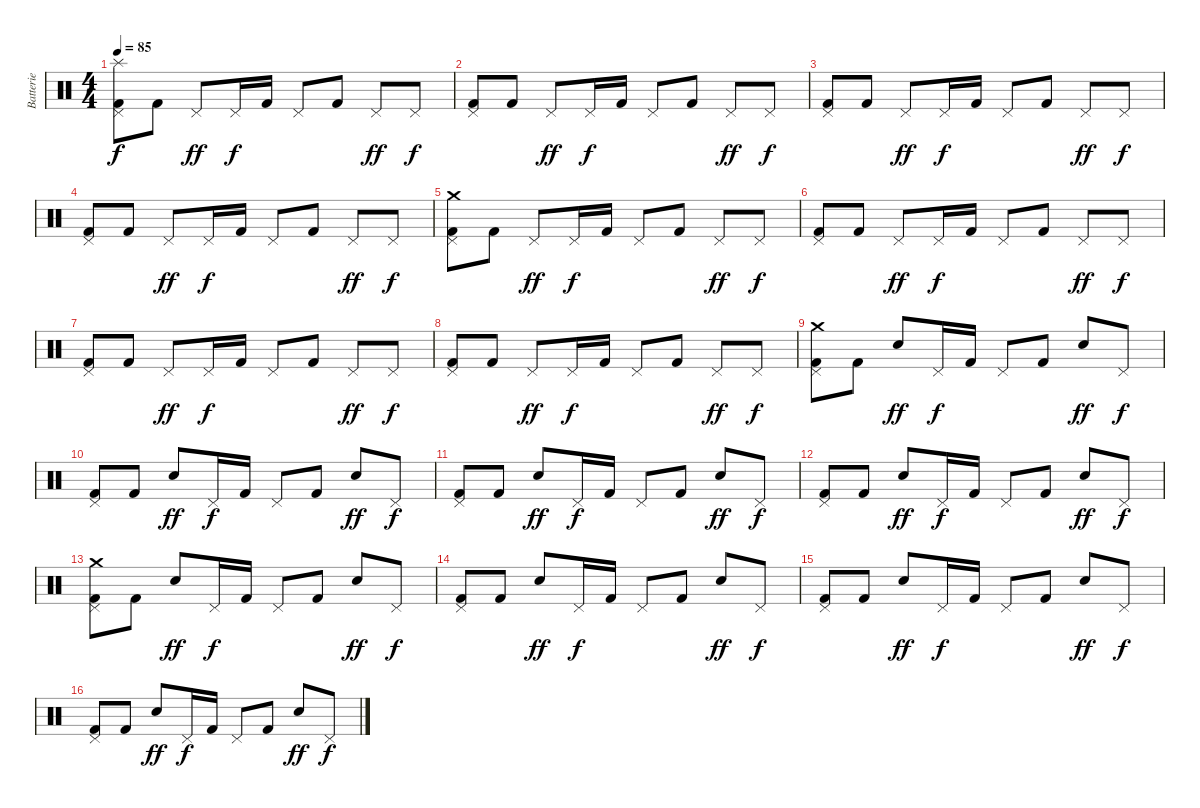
\track ("Batterie" "Batterie") {instrument percussion}
\staff {score}
\articulation defaults
\ts (4 4)
\tempo 85
\clef neutral
\ks c
("Splash (hit)" "Pedal Hi-Hat (hit)" "Kick (hit) 2").8{dy f} "Kick (hit) 2".8 "Pedal Hi-Hat (hit)".8{dy ff} "Pedal Hi-Hat (hit)".16{dy f} "Kick (hit) 2".16 "Pedal Hi-Hat (hit)".8 "Kick (hit) 2".8 "Pedal Hi-Hat (hit)".8{dy ff} "Pedal Hi-Hat (hit)".8{dy f} |
("Pedal Hi-Hat (hit)" "Kick (hit) 2").8 "Kick (hit) 2".8 "Pedal Hi-Hat (hit)".8{dy ff} "Pedal Hi-Hat (hit)".16{dy f} "Kick (hit) 2".16 "Pedal Hi-Hat (hit)".8 "Kick (hit) 2".8 "Pedal Hi-Hat (hit)".8{dy ff} "Pedal Hi-Hat (hit)".8{dy f} |
("Pedal Hi-Hat (hit)" "Kick (hit) 2").8 "Kick (hit) 2".8 "Pedal Hi-Hat (hit)".8{dy ff} "Pedal Hi-Hat (hit)".16{dy f} "Kick (hit) 2".16 "Pedal Hi-Hat (hit)".8 "Kick (hit) 2".8 "Pedal Hi-Hat (hit)".8{dy ff} "Pedal Hi-Hat (hit)".8{dy f} |
("Pedal Hi-Hat (hit)" "Kick (hit) 2").8 "Kick (hit) 2".8 "Pedal Hi-Hat (hit)".8{dy ff} "Pedal Hi-Hat (hit)".16{dy f} "Kick (hit) 2".16 "Pedal Hi-Hat (hit)".8 "Kick (hit) 2".8 "Pedal Hi-Hat (hit)".8{dy ff} "Pedal Hi-Hat (hit)".8{dy f} |
("Crash medium (hit)" "Pedal Hi-Hat (hit)" "Kick (hit) 2").8 "Kick (hit) 2".8 "Pedal Hi-Hat (hit)".8{dy ff} "Pedal Hi-Hat (hit)".16{dy f} "Kick (hit) 2".16 "Pedal Hi-Hat (hit)".8 "Kick (hit) 2".8 "Pedal Hi-Hat (hit)".8{dy ff} "Pedal Hi-Hat (hit)".8{dy f} |
("Pedal Hi-Hat (hit)" "Kick (hit) 2").8 "Kick (hit) 2".8 "Pedal Hi-Hat (hit)".8{dy ff} "Pedal Hi-Hat (hit)".16{dy f} "Kick (hit) 2".16 "Pedal Hi-Hat (hit)".8 "Kick (hit) 2".8 "Pedal Hi-Hat (hit)".8{dy ff} "Pedal Hi-Hat (hit)".8{dy f} |
("Pedal Hi-Hat (hit)" "Kick (hit) 2").8 "Kick (hit) 2".8 "Pedal Hi-Hat (hit)".8{dy ff} "Pedal Hi-Hat (hit)".16{dy f} "Kick (hit) 2".16 "Pedal Hi-Hat (hit)".8 "Kick (hit) 2".8 "Pedal Hi-Hat (hit)".8{dy ff} "Pedal Hi-Hat (hit)".8{dy f} |
("Pedal Hi-Hat (hit)" "Kick (hit) 2").8 "Kick (hit) 2".8 "Pedal Hi-Hat (hit)".8{dy ff} "Pedal Hi-Hat (hit)".16{dy f} "Kick (hit) 2".16 "Pedal Hi-Hat (hit)".8 "Kick (hit) 2".8 "Pedal Hi-Hat (hit)".8{dy ff} "Pedal Hi-Hat (hit)".8{dy f} |
("Crash medium (hit)" "Pedal Hi-Hat (hit)" "Kick (hit) 2").8 "Kick (hit) 2".8 "Electric Snare (hit)".8{dy ff} "Pedal Hi-Hat (hit)".16{dy f} "Kick (hit) 2".16 "Pedal Hi-Hat (hit)".8 "Kick (hit) 2".8 "Electric Snare (hit)".8{dy ff} "Pedal Hi-Hat (hit)".8{dy f} |
("Pedal Hi-Hat (hit)" "Kick (hit) 2").8 "Kick (hit) 2".8 "Electric Snare (hit)".8{dy ff} "Pedal Hi-Hat (hit)".16{dy f} "Kick (hit) 2".16 "Pedal Hi-Hat (hit)".8 "Kick (hit) 2".8 "Electric Snare (hit)".8{dy ff} "Pedal Hi-Hat (hit)".8{dy f} |
("Pedal Hi-Hat (hit)" "Kick (hit) 2").8 "Kick (hit) 2".8 "Electric Snare (hit)".8{dy ff} "Pedal Hi-Hat (hit)".16{dy f} "Kick (hit) 2".16 "Pedal Hi-Hat (hit)".8 "Kick (hit) 2".8 "Electric Snare (hit)".8{dy ff} "Pedal Hi-Hat (hit)".8{dy f} |
("Pedal Hi-Hat (hit)" "Kick (hit) 2").8 "Kick (hit) 2".8 "Electric Snare (hit)".8{dy ff} "Pedal Hi-Hat (hit)".16{dy f} "Kick (hit) 2".16 "Pedal Hi-Hat (hit)".8 "Kick (hit) 2".8 "Electric Snare (hit)".8{dy ff} "Pedal Hi-Hat (hit)".8{dy f} |
("Crash medium (hit)" "Pedal Hi-Hat (hit)" "Kick (hit) 2").8 "Kick (hit) 2".8 "Electric Snare (hit)".8{dy ff} "Pedal Hi-Hat (hit)".16{dy f} "Kick (hit) 2".16 "Pedal Hi-Hat (hit)".8 "Kick (hit) 2".8 "Electric Snare (hit)".8{dy ff} "Pedal Hi-Hat (hit)".8{dy f} |
("Pedal Hi-Hat (hit)" "Kick (hit) 2").8 "Kick (hit) 2".8 "Electric Snare (hit)".8{dy ff} "Pedal Hi-Hat (hit)".16{dy f} "Kick (hit) 2".16 "Pedal Hi-Hat (hit)".8 "Kick (hit) 2".8 "Electric Snare (hit)".8{dy ff} "Pedal Hi-Hat (hit)".8{dy f} |
("Pedal Hi-Hat (hit)" "Kick (hit) 2").8 "Kick (hit) 2".8 "Electric Snare (hit)".8{dy ff} "Pedal Hi-Hat (hit)".16{dy f} "Kick (hit) 2".16 "Pedal Hi-Hat (hit)".8 "Kick (hit) 2".8 "Electric Snare (hit)".8{dy ff} "Pedal Hi-Hat (hit)".8{dy f} |
("Pedal Hi-Hat (hit)" "Kick (hit) 2").8 "Kick (hit) 2".8 "Electric Snare (hit)".8{dy ff} "Pedal Hi-Hat (hit)".16{dy f} "Kick (hit) 2".16 "Pedal Hi-Hat (hit)".8 "Kick (hit) 2".8 "Electric Snare (hit)".8{dy ff} "Pedal Hi-Hat (hit)".8{dy f}
